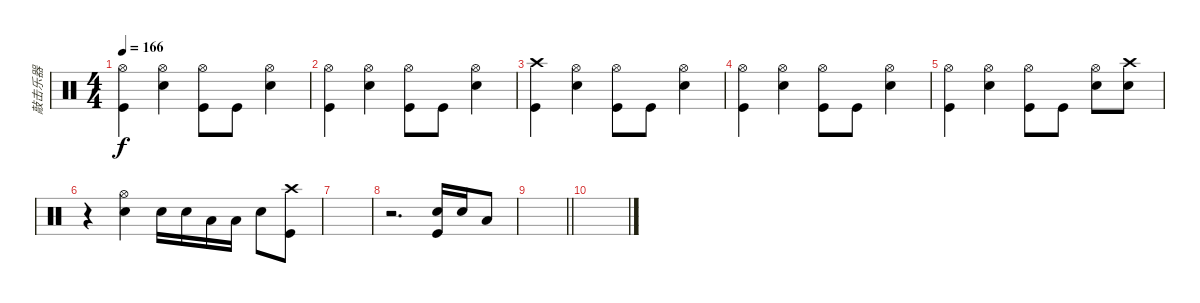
\track ("敲击乐器" "敲击乐器") {instrument percussion}
\staff {score}
\articulation defaults
\ts (4 4)
\tempo 166
\clef neutral
\ks c
("Kick (hit)" "Hi-Hat (open)").4{dy f} ("Snare (hit) 2" "Hi-Hat (open)").4 ("Kick (hit)" "Hi-Hat (open)").8 "Kick (hit)".8 ("Snare (hit) 2" "Hi-Hat (open)").4 |
("Kick (hit)" "Hi-Hat (open)").4 ("Snare (hit) 2" "Hi-Hat (open)").4 ("Kick (hit)" "Hi-Hat (open)").8 "Kick (hit)".8 ("Snare (hit) 2" "Hi-Hat (open)").4 |
("Kick (hit)" "Crash high (hit)").4 ("Snare (hit) 2" "Hi-Hat (open)").4 ("Kick (hit)" "Hi-Hat (open)").8 "Kick (hit)".8 ("Snare (hit) 2" "Hi-Hat (open)").4 |
("Kick (hit)" "Hi-Hat (open)").4 ("Snare (hit) 2" "Hi-Hat (open)").4 ("Kick (hit)" "Hi-Hat (open)").8 "Kick (hit)".8 ("Snare (hit) 2" "Hi-Hat (open)").4 |
("Kick (hit)" "Hi-Hat (open)").4 ("Snare (hit) 2" "Hi-Hat (open)").4 ("Kick (hit)" "Hi-Hat (open)").8 "Kick (hit)".8 ("Snare (hit) 2" "Hi-Hat (open)").8 ("Snare (hit) 2" "Crash high (hit)").8 |
r.4 ("Snare (hit) 2" "Hi-Hat (open)").4 "Snare (hit) 2".16 "Snare (hit) 2".16 "Low Floor Tom (hit)".16 "Low Floor Tom (hit)".16 "Snare (hit) 2".8 ("Kick (hit)" "Crash high (hit)").8 |
|
r.2{d} ("Snare (hit) 2" "Kick (hit)").16 "Snare (hit) 2".16 "Low Floor Tom (hit)".8 |
\barLineRight lightlight
|
\section ("" "")
